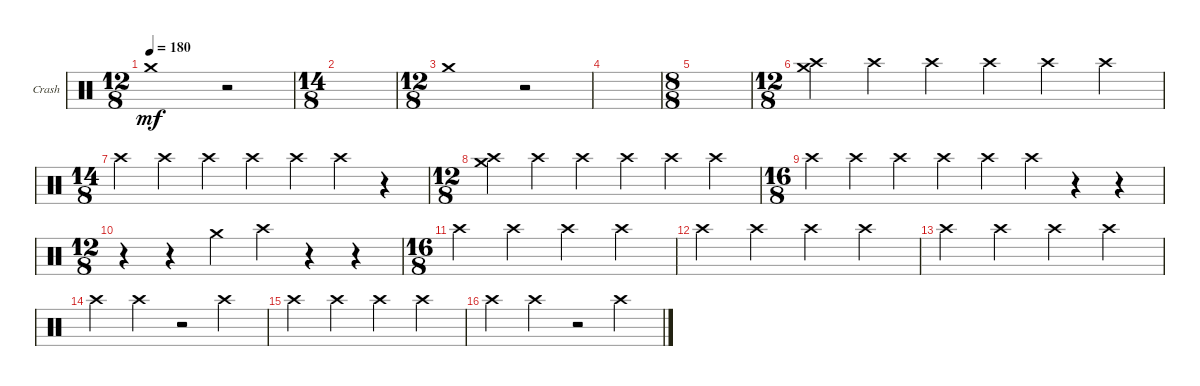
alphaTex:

\defaultSystemsLayout 4
\bracketExtendMode groupsimilarinstruments
\firstSystemTrackNameOrientation horizontal
\otherSystemsTrackNameOrientation horizontal
\track ("Crashes" "Crash") {instrument percussion}
\staff {score}
\articulation defaults
\ts (12 8)
\tempo 180
\clef neutral
\ks c "Crash medium (hit)".1{dy mf}
r.2 |
\ts (14 8)
|
\ts (12 8)
"Crash medium (hit)".1 r.2 |
|
\ts (8 8)
|
\ts (12 8)
("Crash medium (hit)" "Crash high (hit)").4 "Crash high (hit)".4 "Crash high (hit)".4 "Crash high (hit)".4 "Crash high (hit)".4 "Crash high (hit)".4 |
\ts (14 8)
"Crash high (hit)".4 "Crash high (hit)".4 "Crash high (hit)".4 "Crash high (hit)".4 "Crash high (hit)".4 "Crash high (hit)".4 r.4 |
\ts (12 8)
("Crash high (hit)" "Crash medium (hit)").4 "Crash high (hit)".4 "Crash high (hit)".4 "Crash high (hit)".4 "Crash high (hit)".4 "Crash high (hit)".4 |
\ts (16 8)
"Crash high (hit)".4 "Crash high (hit)".4 "Crash high (hit)".4 "Crash high (hit)".4 "Crash high (hit)".4 "Crash high (hit)".4 r.4 r.4 |
\ts (12 8)
r.4 r.4 "Crash medium (hit)".4 "Crash high (hit)".4 r.4 r.4 |
\ts (16 8)
"Crash high (hit)".2 "Crash high (hit)".2 "Crash high (hit)".2 "Crash high (hit)".2 |
"Crash high (hit)".2 "Crash high (hit)".2 "Crash high (hit)".2 "Crash high (hit)".2 |
"Crash high (hit)".2 "Crash high (hit)".2 "Crash high (hit)".2 "Crash high (hit)".2 |
"Crash high (hit)".2 "Crash high (hit)".2 r.2 "Crash high (hit)".2 |
"Crash high (hit)".2 "Crash high (hit)".2 "Crash high (hit)".2 "Crash high (hit)".2 |
"Crash high (hit)".2 "Crash high (hit)".2 r.2 "Crash high (hit)".2
